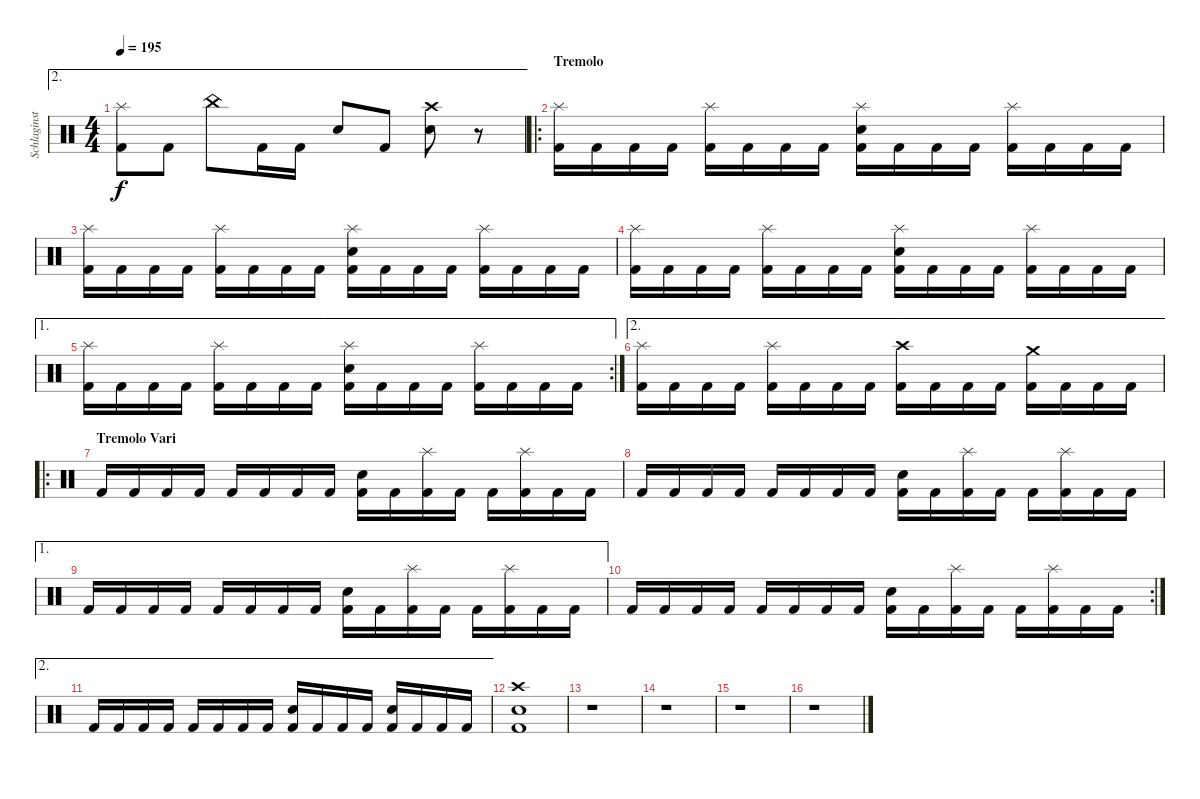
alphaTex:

\track ("Schlaginstrumente - Auswahl" "Schlaginst") {instrument percussion}
\staff {score}
\articulation defaults
\ae 2
\ts (4 4)
\tempo 195
\clef neutral
\ks c
("Splash (hit)" "Kick (hit) 2").8{dy f} "Kick (hit) 2".8 "China (hit)".8 "Kick (hit) 2".16 "Kick (hit) 2".16 "Snare (hit) 2".8 "Kick (hit) 2".8 ("Snare (hit) 2" "Crash high (hit)").8 r.8 |
\ro
\section ("" "Tremolo")
("Splash (hit)" "Kick (hit) 2").16 "Kick (hit) 2".16 "Kick (hit) 2".16 "Kick (hit) 2".16 ("Splash (hit)" "Kick (hit) 2").16 "Kick (hit) 2".16 "Kick (hit) 2".16 "Kick (hit) 2".16 ("Snare (hit) 2" "Splash (hit)" "Kick (hit) 2").16 "Kick (hit) 2".16 "Kick (hit) 2".16 "Kick (hit) 2".16 ("Splash (hit)" "Kick (hit) 2").16 "Kick (hit) 2".16 "Kick (hit) 2".16 "Kick (hit) 2".16 |
("Splash (hit)" "Kick (hit) 2").16 "Kick (hit) 2".16 "Kick (hit) 2".16 "Kick (hit) 2".16 ("Splash (hit)" "Kick (hit) 2").16 "Kick (hit) 2".16 "Kick (hit) 2".16 "Kick (hit) 2".16 ("Snare (hit) 2" "Splash (hit)" "Kick (hit) 2").16 "Kick (hit) 2".16 "Kick (hit) 2".16 "Kick (hit) 2".16 ("Splash (hit)" "Kick (hit) 2").16 "Kick (hit) 2".16 "Kick (hit) 2".16 "Kick (hit) 2".16 |
("Splash (hit)" "Kick (hit) 2").16 "Kick (hit) 2".16 "Kick (hit) 2".16 "Kick (hit) 2".16 ("Splash (hit)" "Kick (hit) 2").16 "Kick (hit) 2".16 "Kick (hit) 2".16 "Kick (hit) 2".16 ("Snare (hit) 2" "Splash (hit)" "Kick (hit) 2").16 "Kick (hit) 2".16 "Kick (hit) 2".16 "Kick (hit) 2".16 ("Splash (hit)" "Kick (hit) 2").16 "Kick (hit) 2".16 "Kick (hit) 2".16 "Kick (hit) 2".16 |
\ae 1
\rc 2
("Splash (hit)" "Kick (hit) 2").16 "Kick (hit) 2".16 "Kick (hit) 2".16 "Kick (hit) 2".16 ("Splash (hit)" "Kick (hit) 2").16 "Kick (hit) 2".16 "Kick (hit) 2".16 "Kick (hit) 2".16 ("Snare (hit) 2" "Splash (hit)" "Kick (hit) 2").16 "Kick (hit) 2".16 "Kick (hit) 2".16 "Kick (hit) 2".16 ("Splash (hit)" "Kick (hit) 2").16 "Kick (hit) 2".16 "Kick (hit) 2".16 "Kick (hit) 2".16 |
\ae 2
("Splash (hit)" "Kick (hit) 2").16 "Kick (hit) 2".16 "Kick (hit) 2".16 "Kick (hit) 2".16 ("Splash (hit)" "Kick (hit) 2").16 "Kick (hit) 2".16 "Kick (hit) 2".16 "Kick (hit) 2".16 ("Crash high (hit)" "Kick (hit) 2").16 "Kick (hit) 2".16 "Kick (hit) 2".16 "Kick (hit) 2".16 ("Crash medium (hit)" "Kick (hit) 2").16 "Kick (hit) 2".16 "Kick (hit) 2".16 "Kick (hit) 2".16 |
\ro
\section ("" "Tremolo Vari")
"Kick (hit) 2".16 "Kick (hit) 2".16 "Kick (hit) 2".16 "Kick (hit) 2".16 "Kick (hit) 2".16 "Kick (hit) 2".16 "Kick (hit) 2".16 "Kick (hit) 2".16 ("Snare (hit) 2" "Kick (hit) 2").16 "Kick (hit) 2".16 ("Splash (hit)" "Kick (hit) 2").16 "Kick (hit) 2".16 "Kick (hit) 2".16 ("Splash (hit)" "Kick (hit) 2").16 "Kick (hit) 2".16 "Kick (hit) 2".16 |
"Kick (hit) 2".16 "Kick (hit) 2".16 "Kick (hit) 2".16 "Kick (hit) 2".16 "Kick (hit) 2".16 "Kick (hit) 2".16 "Kick (hit) 2".16 "Kick (hit) 2".16 ("Snare (hit) 2" "Kick (hit) 2").16 "Kick (hit) 2".16 ("Splash (hit)" "Kick (hit) 2").16 "Kick (hit) 2".16 "Kick (hit) 2".16 ("Splash (hit)" "Kick (hit) 2").16 "Kick (hit) 2".16 "Kick (hit) 2".16 |
\ae 1 "Kick (hit) 2".16 "Kick (hit) 2".16 "Kick (hit) 2".16 "Kick (hit) 2".16 "Kick (hit) 2".16 "Kick (hit) 2".16 "Kick (hit) 2".16 "Kick (hit) 2".16
("Snare (hit) 2" "Kick (hit) 2").16 "Kick (hit) 2".16 ("Splash (hit)" "Kick (hit) 2").16 "Kick (hit) 2".16 "Kick (hit) 2".16 ("Splash (hit)" "Kick (hit) 2").16 "Kick (hit) 2".16 "Kick (hit) 2".16 |
\rc 2 "Kick (hit) 2".16 "Kick (hit) 2".16 "Kick (hit) 2".16 "Kick (hit) 2".16 "Kick (hit) 2".16 "Kick (hit) 2".16 "Kick (hit) 2".16 "Kick (hit) 2".16
("Snare (hit) 2" "Kick (hit) 2").16 "Kick (hit) 2".16 ("Splash (hit)" "Kick (hit) 2").16 "Kick (hit) 2".16 "Kick (hit) 2".16 ("Splash (hit)" "Kick (hit) 2").16 "Kick (hit) 2".16 "Kick (hit) 2".16 |
\ae 2 "Kick (hit) 2".16 "Kick (hit) 2".16 "Kick (hit) 2".16 "Kick (hit) 2".16 "Kick (hit) 2".16 "Kick (hit) 2".16 "Kick (hit) 2".16 "Kick (hit) 2".16
("Snare (hit) 2" "Kick (hit) 2").16 "Kick (hit) 2".16 "Kick (hit) 2".16 "Kick (hit) 2".16 ("Snare (hit) 2" "Kick (hit) 2").16 "Kick (hit) 2".16 "Kick (hit) 2".16 "Kick (hit) 2".16 |
("Snare (hit) 2" "Crash high (hit)" "Kick (hit) 2").1 |
r.1 |
r.1 |
r.1 |
r.1
